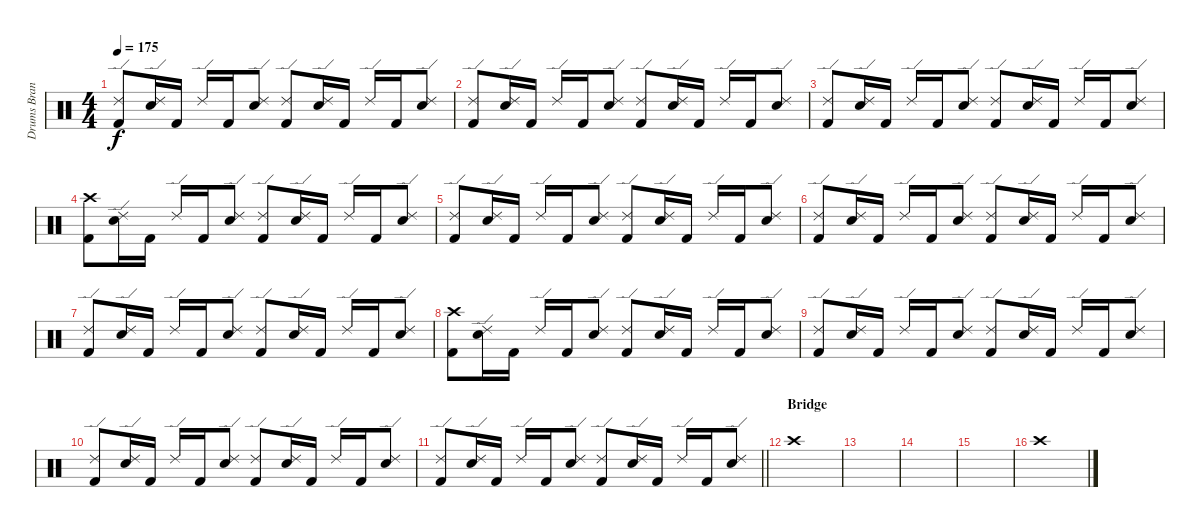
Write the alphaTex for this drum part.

\track ("Drums Brandon" "Drums Bran") {instrument percussion}
\staff {score}
\articulation defaults
\ts (4 4)
\tempo 175
\clef neutral
\ks c
("Ride (edge) 2" "Kick (hit) 2").8{dy f} ("Ride (edge) 2" "Electric Snare (hit)").16 "Kick (hit) 2".16 "Ride (edge) 2".16 "Kick (hit) 2".16 ("Ride (edge) 2" "Electric Snare (hit)").8 ("Ride (edge) 2" "Kick (hit) 2").8 ("Ride (edge) 2" "Electric Snare (hit)").16 "Kick (hit) 2".16 "Ride (edge) 2".16 "Kick (hit) 2".16 ("Ride (edge) 2" "Electric Snare (hit)").8 |
("Ride (edge) 2" "Kick (hit) 2").8 ("Ride (edge) 2" "Electric Snare (hit)").16 "Kick (hit) 2".16 "Ride (edge) 2".16 "Kick (hit) 2".16 ("Ride (edge) 2" "Electric Snare (hit)").8 ("Ride (edge) 2" "Kick (hit) 2").8 ("Ride (edge) 2" "Electric Snare (hit)").16 "Kick (hit) 2".16 "Ride (edge) 2".16 "Kick (hit) 2".16 ("Ride (edge) 2" "Electric Snare (hit)").8 |
("Ride (edge) 2" "Kick (hit) 2").8 ("Ride (edge) 2" "Electric Snare (hit)").16 "Kick (hit) 2".16 "Ride (edge) 2".16 "Kick (hit) 2".16 ("Ride (edge) 2" "Electric Snare (hit)").8 ("Ride (edge) 2" "Kick (hit) 2").8 ("Ride (edge) 2" "Electric Snare (hit)").16 "Kick (hit) 2".16 "Ride (edge) 2".16 "Kick (hit) 2".16 ("Ride (edge) 2" "Electric Snare (hit)").8 |
("Crash high (hit)" "Kick (hit) 2").8 ("Ride (edge) 2" "Electric Snare (hit)").16 "Kick (hit) 2".16 "Ride (edge) 2".16 "Kick (hit) 2".16 ("Ride (edge) 2" "Electric Snare (hit)").8 ("Ride (edge) 2" "Kick (hit) 2").8 ("Ride (edge) 2" "Electric Snare (hit)").16 "Kick (hit) 2".16 "Ride (edge) 2".16 "Kick (hit) 2".16 ("Ride (edge) 2" "Electric Snare (hit)").8 |
("Ride (edge) 2" "Kick (hit) 2").8 ("Ride (edge) 2" "Electric Snare (hit)").16 "Kick (hit) 2".16 "Ride (edge) 2".16 "Kick (hit) 2".16 ("Ride (edge) 2" "Electric Snare (hit)").8 ("Ride (edge) 2" "Kick (hit) 2").8 ("Ride (edge) 2" "Electric Snare (hit)").16 "Kick (hit) 2".16 "Ride (edge) 2".16 "Kick (hit) 2".16 ("Ride (edge) 2" "Electric Snare (hit)").8 |
("Ride (edge) 2" "Kick (hit) 2").8 ("Ride (edge) 2" "Electric Snare (hit)").16 "Kick (hit) 2".16 "Ride (edge) 2".16 "Kick (hit) 2".16 ("Ride (edge) 2" "Electric Snare (hit)").8 ("Ride (edge) 2" "Kick (hit) 2").8 ("Ride (edge) 2" "Electric Snare (hit)").16 "Kick (hit) 2".16 "Ride (edge) 2".16 "Kick (hit) 2".16 ("Ride (edge) 2" "Electric Snare (hit)").8 |
("Ride (edge) 2" "Kick (hit) 2").8 ("Ride (edge) 2" "Electric Snare (hit)").16 "Kick (hit) 2".16 "Ride (edge) 2".16 "Kick (hit) 2".16 ("Ride (edge) 2" "Electric Snare (hit)").8 ("Ride (edge) 2" "Kick (hit) 2").8 ("Ride (edge) 2" "Electric Snare (hit)").16 "Kick (hit) 2".16 "Ride (edge) 2".16 "Kick (hit) 2".16 ("Ride (edge) 2" "Electric Snare (hit)").8 |
("Crash high (hit)" "Kick (hit) 2").8 ("Ride (edge) 2" "Electric Snare (hit)").16 "Kick (hit) 2".16 "Ride (edge) 2".16 "Kick (hit) 2".16 ("Ride (edge) 2" "Electric Snare (hit)").8 ("Ride (edge) 2" "Kick (hit) 2").8 ("Ride (edge) 2" "Electric Snare (hit)").16 "Kick (hit) 2".16 "Ride (edge) 2".16 "Kick (hit) 2".16 ("Ride (edge) 2" "Electric Snare (hit)").8 |
("Ride (edge) 2" "Kick (hit) 2").8 ("Ride (edge) 2" "Electric Snare (hit)").16 "Kick (hit) 2".16 "Ride (edge) 2".16 "Kick (hit) 2".16 ("Ride (edge) 2" "Electric Snare (hit)").8 ("Ride (edge) 2" "Kick (hit) 2").8 ("Ride (edge) 2" "Electric Snare (hit)").16 "Kick (hit) 2".16 "Ride (edge) 2".16 "Kick (hit) 2".16 ("Ride (edge) 2" "Electric Snare (hit)").8 |
("Ride (edge) 2" "Kick (hit) 2").8 ("Ride (edge) 2" "Electric Snare (hit)").16 "Kick (hit) 2".16 "Ride (edge) 2".16 "Kick (hit) 2".16 ("Ride (edge) 2" "Electric Snare (hit)").8 ("Ride (edge) 2" "Kick (hit) 2").8 ("Ride (edge) 2" "Electric Snare (hit)").16 "Kick (hit) 2".16 "Ride (edge) 2".16 "Kick (hit) 2".16 ("Ride (edge) 2" "Electric Snare (hit)").8 |
\barLineRight lightlight
("Ride (edge) 2" "Kick (hit) 2").8 ("Ride (edge) 2" "Electric Snare (hit)").16 "Kick (hit) 2".16 "Ride (edge) 2".16 "Kick (hit) 2".16 ("Ride (edge) 2" "Electric Snare (hit)").8 ("Ride (edge) 2" "Kick (hit) 2").8 ("Ride (edge) 2" "Electric Snare (hit)").16 "Kick (hit) 2".16 "Ride (edge) 2".16 "Kick (hit) 2".16 ("Ride (edge) 2" "Electric Snare (hit)").8 |
\section ("" "Bridge")
"Crash high (hit)".1 |
|
|
|
"Crash high (hit)".1
